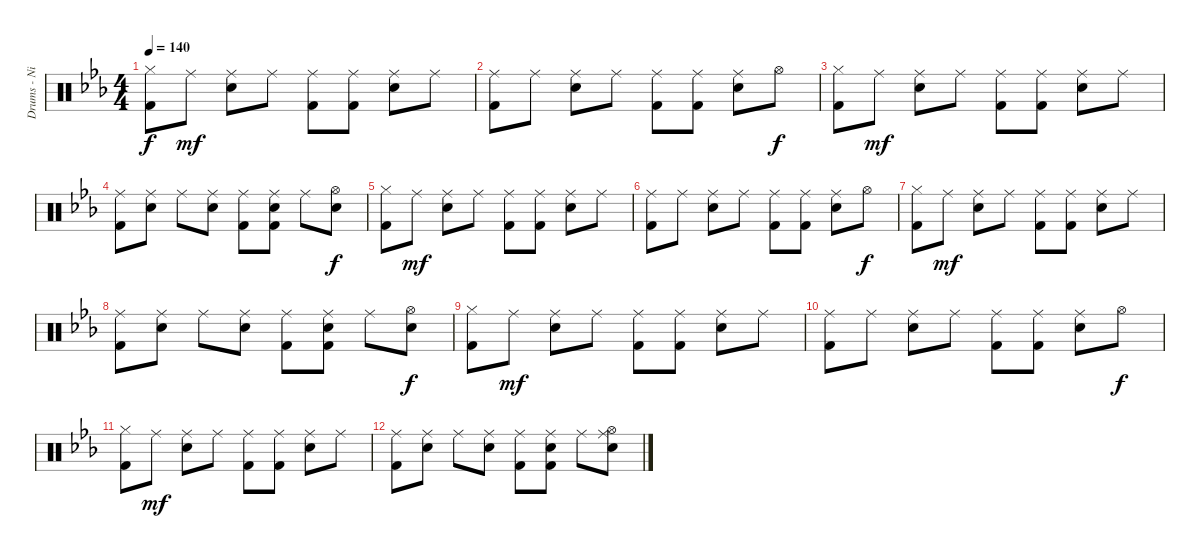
\track ("Drums - Nigel Olsen" "Drums - Ni") {instrument percussion}
\staff {score}
\articulation defaults
\ts (4 4)
\tempo 140
\clef neutral
\ks cminor
("Hi-Hat (closed)" "Kick (hit) 2").8{dy f} "Ride (middle)".8{dy mf} ("Ride (middle)" "Snare (hit) 2").8 "Ride (middle)".8 ("Ride (middle)" "Kick (hit) 2").8 ("Ride (middle)" "Kick (hit) 2").8 ("Ride (middle)" "Snare (hit) 2").8 "Ride (middle)".8 |
("Ride (middle)" "Kick (hit) 2").8 "Ride (middle)".8 ("Ride (middle)" "Snare (hit) 2").8 "Ride (middle)".8 ("Ride (middle)" "Kick (hit) 2").8 ("Ride (middle)" "Kick (hit) 2").8 ("Ride (middle)" "Snare (hit) 2").8 "Hi-Hat (open)".8{dy f} |
("Hi-Hat (closed)" "Kick (hit) 2").8 "Ride (middle)".8{dy mf} ("Ride (middle)" "Snare (hit) 2").8 "Ride (middle)".8 ("Ride (middle)" "Kick (hit) 2").8 ("Ride (middle)" "Kick (hit) 2").8 ("Ride (middle)" "Snare (hit) 2").8 "Ride (middle)".8 |
("Ride (middle)" "Kick (hit) 2").8 ("Ride (middle)" "Snare (hit) 2").8 "Ride (middle)".8 ("Ride (middle)" "Snare (hit) 2").8 ("Ride (middle)" "Kick (hit) 2").8 ("Ride (middle)" "Snare (hit) 2" "Kick (hit) 2").8 "Ride (middle)".8 ("Hi-Hat (open)" "Snare (hit) 2").8{dy f} |
("Hi-Hat (closed)" "Kick (hit) 2").8 "Ride (middle)".8{dy mf} ("Ride (middle)" "Snare (hit) 2").8 "Ride (middle)".8 ("Ride (middle)" "Kick (hit) 2").8 ("Ride (middle)" "Kick (hit) 2").8 ("Ride (middle)" "Snare (hit) 2").8 "Ride (middle)".8 |
("Ride (middle)" "Kick (hit) 2").8 "Ride (middle)".8 ("Ride (middle)" "Snare (hit) 2").8 "Ride (middle)".8 ("Ride (middle)" "Kick (hit) 2").8 ("Ride (middle)" "Kick (hit) 2").8 ("Ride (middle)" "Snare (hit) 2").8 "Hi-Hat (open)".8{dy f} |
("Hi-Hat (closed)" "Kick (hit) 2").8 "Ride (middle)".8{dy mf} ("Ride (middle)" "Snare (hit) 2").8 "Ride (middle)".8 ("Ride (middle)" "Kick (hit) 2").8 ("Ride (middle)" "Kick (hit) 2").8 ("Ride (middle)" "Snare (hit) 2").8 "Ride (middle)".8 |
("Ride (middle)" "Kick (hit) 2").8 ("Ride (middle)" "Snare (hit) 2").8 "Ride (middle)".8 ("Ride (middle)" "Snare (hit) 2").8 ("Ride (middle)" "Kick (hit) 2").8 ("Ride (middle)" "Snare (hit) 2" "Kick (hit) 2").8 "Ride (middle)".8 ("Hi-Hat (open)" "Snare (hit) 2").8{dy f} |
("Hi-Hat (closed)" "Kick (hit) 2").8{volume 0} "Ride (middle)".8{dy mf} ("Ride (middle)" "Snare (hit) 2").8 "Ride (middle)".8 ("Ride (middle)" "Kick (hit) 2").8 ("Ride (middle)" "Kick (hit) 2").8 ("Ride (middle)" "Snare (hit) 2").8 "Ride (middle)".8 |
("Ride (middle)" "Kick (hit) 2").8 "Ride (middle)".8 ("Ride (middle)" "Snare (hit) 2").8 "Ride (middle)".8 ("Ride (middle)" "Kick (hit) 2").8 ("Ride (middle)" "Kick (hit) 2").8 ("Ride (middle)" "Snare (hit) 2").8 "Hi-Hat (open)".8{dy f} |
("Hi-Hat (closed)" "Kick (hit) 2").8 "Ride (middle)".8{dy mf} ("Ride (middle)" "Snare (hit) 2").8 "Ride (middle)".8 ("Ride (middle)" "Kick (hit) 2").8 ("Ride (middle)" "Kick (hit) 2").8 ("Ride (middle)" "Snare (hit) 2").8 "Ride (middle)".8 |
("Ride (middle)" "Kick (hit) 2").8 ("Ride (middle)" "Snare (hit) 2").8 "Ride (middle)".8 ("Ride (middle)" "Snare (hit) 2").8 ("Ride (middle)" "Kick (hit) 2").8 ("Ride (middle)" "Snare (hit) 2" "Kick (hit) 2").8 "Ride (middle)".8 ("Ride (middle)" "Hi-Hat (open)" "Snare (hit) 2").8
